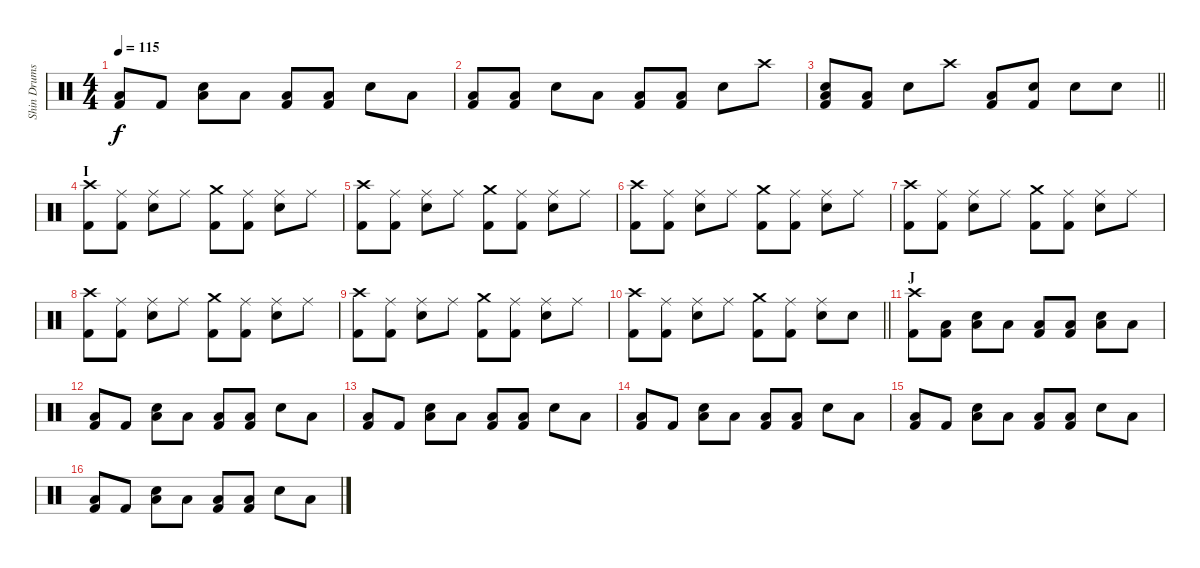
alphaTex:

\track ("Shin Drums" "Shin Drums") {instrument percussion}
\staff {score}
\articulation defaults
\ts (4 4)
\tempo 115
\clef neutral
\ks c
("Low Floor Tom (hit)" "Kick (hit) 2").8{dy f} "Kick (hit) 2".8 ("Low Floor Tom (hit)" "Snare (hit) 2").8 "Low Floor Tom (hit)".8 ("Low Floor Tom (hit)" "Kick (hit) 2").8 ("Low Floor Tom (hit)" "Kick (hit) 2").8 "Snare (hit) 2".8 "Low Floor Tom (hit)".8 |
("Low Floor Tom (hit)" "Kick (hit) 2").8 ("Low Floor Tom (hit)" "Kick (hit) 2").8 "Snare (hit) 2".8 "Low Floor Tom (hit)".8 ("Low Floor Tom (hit)" "Kick (hit) 2").8 ("Low Floor Tom (hit)" "Kick (hit) 2").8 "Snare (hit) 2".8 "Crash high (hit)".8 |
\barLineRight lightlight
("Low Floor Tom (hit)" "Snare (hit) 2" "Kick (hit) 2").8 ("Low Floor Tom (hit)" "Kick (hit) 2").8 "Snare (hit) 2".8 "Crash high (hit)".8 ("Low Floor Tom (hit)" "Kick (hit) 2").8 ("Snare (hit) 2" "Kick (hit) 2").8 "Snare (hit) 2".8 "Snare (hit) 2".8 |
\section ("" "I")
("Crash high (hit)" "Kick (hit) 2").8 ("Ride (middle)" "Kick (hit) 2").8 ("Ride (middle)" "Snare (hit) 2").8 "Ride (middle)".8 ("Crash medium (hit)" "Kick (hit) 2").8 ("Ride (middle)" "Kick (hit) 2").8 ("Ride (middle)" "Snare (hit) 2").8 "Ride (middle)".8 |
("Crash high (hit)" "Kick (hit) 2").8 ("Ride (middle)" "Kick (hit) 2").8 ("Ride (middle)" "Snare (hit) 2").8 "Ride (middle)".8 ("Crash medium (hit)" "Kick (hit) 2").8 ("Ride (middle)" "Kick (hit) 2").8 ("Ride (middle)" "Snare (hit) 2").8 "Ride (middle)".8 |
("Crash high (hit)" "Kick (hit) 2").8 ("Ride (middle)" "Kick (hit) 2").8 ("Ride (middle)" "Snare (hit) 2").8 "Ride (middle)".8 ("Crash medium (hit)" "Kick (hit) 2").8 ("Ride (middle)" "Kick (hit) 2").8 ("Ride (middle)" "Snare (hit) 2").8 "Ride (middle)".8 |
("Crash high (hit)" "Kick (hit) 2").8 ("Ride (middle)" "Kick (hit) 2").8 ("Ride (middle)" "Snare (hit) 2").8 "Ride (middle)".8 ("Crash medium (hit)" "Kick (hit) 2").8 ("Ride (middle)" "Kick (hit) 2").8 ("Ride (middle)" "Snare (hit) 2").8 "Ride (middle)".8 |
("Crash high (hit)" "Kick (hit) 2").8 ("Ride (middle)" "Kick (hit) 2").8 ("Ride (middle)" "Snare (hit) 2").8 "Ride (middle)".8 ("Crash medium (hit)" "Kick (hit) 2").8 ("Ride (middle)" "Kick (hit) 2").8 ("Ride (middle)" "Snare (hit) 2").8 "Ride (middle)".8 |
("Crash high (hit)" "Kick (hit) 2").8 ("Ride (middle)" "Kick (hit) 2").8 ("Ride (middle)" "Snare (hit) 2").8 "Ride (middle)".8 ("Crash medium (hit)" "Kick (hit) 2").8 ("Ride (middle)" "Kick (hit) 2").8 ("Ride (middle)" "Snare (hit) 2").8 "Ride (middle)".8 |
\barLineRight lightlight
("Crash high (hit)" "Kick (hit) 2").8 ("Ride (middle)" "Kick (hit) 2").8 ("Ride (middle)" "Snare (hit) 2").8 "Ride (middle)".8 ("Crash medium (hit)" "Kick (hit) 2").8 ("Ride (middle)" "Kick (hit) 2").8 ("Ride (middle)" "Snare (hit) 2").8 "Snare (hit) 2".8 |
\section ("" "J")
("Crash high (hit)" "Kick (hit) 2").8 ("Low Floor Tom (hit)" "Kick (hit) 2").8 ("Low Floor Tom (hit)" "Snare (hit) 2").8 "Low Floor Tom (hit)".8 ("Low Floor Tom (hit)" "Kick (hit) 2").8 ("Low Floor Tom (hit)" "Kick (hit) 2").8 ("Low Floor Tom (hit)" "Snare (hit) 2").8 "Low Floor Tom (hit)".8 |
("Low Floor Tom (hit)" "Kick (hit) 2").8 "Kick (hit) 2".8 ("Low Floor Tom (hit)" "Snare (hit) 2").8 "Low Floor Tom (hit)".8 ("Low Floor Tom (hit)" "Kick (hit) 2").8 ("Low Floor Tom (hit)" "Kick (hit) 2").8 "Snare (hit) 2".8 "Low Floor Tom (hit)".8 |
("Low Floor Tom (hit)" "Kick (hit) 2").8 "Kick (hit) 2".8 ("Low Floor Tom (hit)" "Snare (hit) 2").8 "Low Floor Tom (hit)".8 ("Low Floor Tom (hit)" "Kick (hit) 2").8 ("Low Floor Tom (hit)" "Kick (hit) 2").8 "Snare (hit) 2".8 "Low Floor Tom (hit)".8 |
("Low Floor Tom (hit)" "Kick (hit) 2").8 "Kick (hit) 2".8 ("Low Floor Tom (hit)" "Snare (hit) 2").8 "Low Floor Tom (hit)".8 ("Low Floor Tom (hit)" "Kick (hit) 2").8 ("Low Floor Tom (hit)" "Kick (hit) 2").8 "Snare (hit) 2".8 "Low Floor Tom (hit)".8 |
("Low Floor Tom (hit)" "Kick (hit) 2").8 "Kick (hit) 2".8 ("Low Floor Tom (hit)" "Snare (hit) 2").8 "Low Floor Tom (hit)".8 ("Low Floor Tom (hit)" "Kick (hit) 2").8 ("Low Floor Tom (hit)" "Kick (hit) 2").8 "Snare (hit) 2".8 "Low Floor Tom (hit)".8 |
("Low Floor Tom (hit)" "Kick (hit) 2").8 "Kick (hit) 2".8 ("Low Floor Tom (hit)" "Snare (hit) 2").8 "Low Floor Tom (hit)".8 ("Low Floor Tom (hit)" "Kick (hit) 2").8 ("Low Floor Tom (hit)" "Kick (hit) 2").8 "Snare (hit) 2".8 "Low Floor Tom (hit)".8
